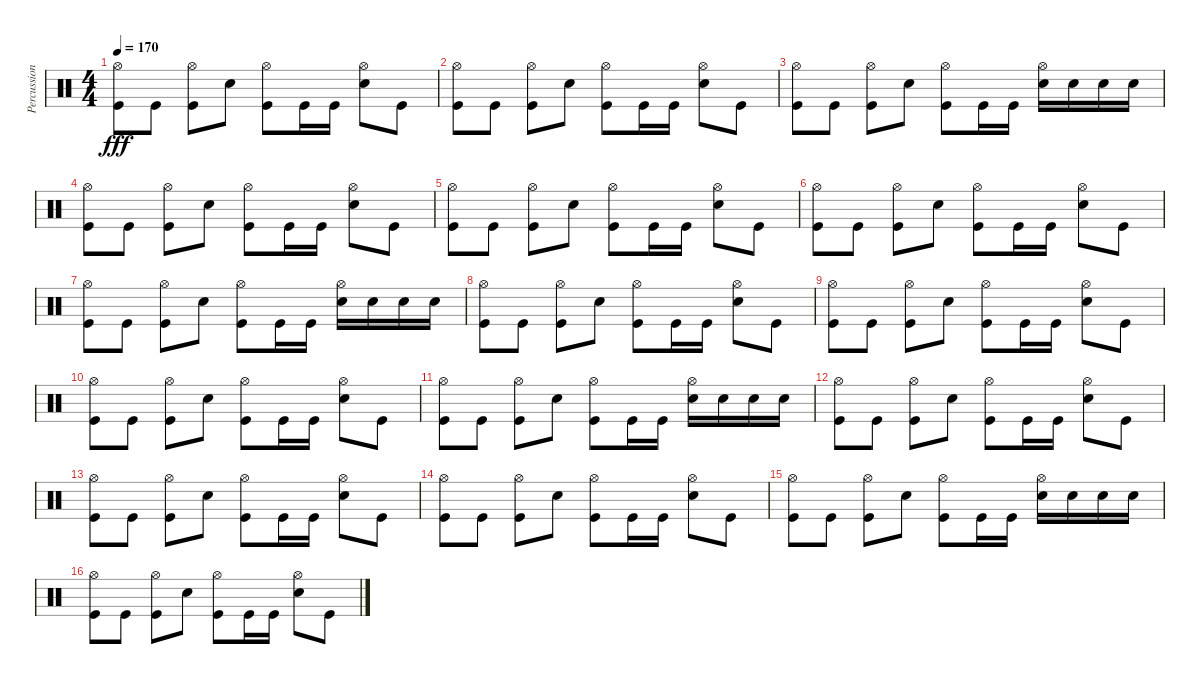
\track ("Percussion" "Percussion") {instrument percussion}
\staff {score}
\articulation defaults
\ts (4 4)
\tempo 170
\clef neutral
\ks c
("Hi-Hat (open)" "Kick (hit)").8{dy fff} "Kick (hit)".8 ("Hi-Hat (open)" "Kick (hit)").8 "Snare (hit) 2".8 ("Hi-Hat (open)" "Kick (hit)").8 "Kick (hit)".16 "Kick (hit)".16 ("Hi-Hat (open)" "Snare (hit) 2").8 "Kick (hit)".8 |
("Hi-Hat (open)" "Kick (hit)").8 "Kick (hit)".8 ("Hi-Hat (open)" "Kick (hit)").8 "Snare (hit) 2".8 ("Hi-Hat (open)" "Kick (hit)").8 "Kick (hit)".16 "Kick (hit)".16 ("Hi-Hat (open)" "Snare (hit) 2").8 "Kick (hit)".8 |
("Hi-Hat (open)" "Kick (hit)").8 "Kick (hit)".8 ("Hi-Hat (open)" "Kick (hit)").8 "Snare (hit) 2".8 ("Hi-Hat (open)" "Kick (hit)").8 "Kick (hit)".16 "Kick (hit)".16 ("Hi-Hat (open)" "Snare (hit) 2").16 "Snare (hit) 2".16 "Snare (hit) 2".16 "Snare (hit) 2".16 |
("Hi-Hat (open)" "Kick (hit)").8 "Kick (hit)".8 ("Hi-Hat (open)" "Kick (hit)").8 "Snare (hit) 2".8 ("Hi-Hat (open)" "Kick (hit)").8 "Kick (hit)".16 "Kick (hit)".16 ("Hi-Hat (open)" "Snare (hit) 2").8 "Kick (hit)".8 |
("Hi-Hat (open)" "Kick (hit)").8 "Kick (hit)".8 ("Hi-Hat (open)" "Kick (hit)").8 "Snare (hit) 2".8 ("Hi-Hat (open)" "Kick (hit)").8 "Kick (hit)".16 "Kick (hit)".16 ("Hi-Hat (open)" "Snare (hit) 2").8 "Kick (hit)".8 |
("Hi-Hat (open)" "Kick (hit)").8 "Kick (hit)".8 ("Hi-Hat (open)" "Kick (hit)").8 "Snare (hit) 2".8 ("Hi-Hat (open)" "Kick (hit)").8 "Kick (hit)".16 "Kick (hit)".16 ("Hi-Hat (open)" "Snare (hit) 2").8 "Kick (hit)".8 |
("Hi-Hat (open)" "Kick (hit)").8 "Kick (hit)".8 ("Hi-Hat (open)" "Kick (hit)").8 "Snare (hit) 2".8 ("Hi-Hat (open)" "Kick (hit)").8 "Kick (hit)".16 "Kick (hit)".16 ("Hi-Hat (open)" "Snare (hit) 2").16 "Snare (hit) 2".16 "Snare (hit) 2".16 "Snare (hit) 2".16 |
("Hi-Hat (open)" "Kick (hit)").8 "Kick (hit)".8 ("Hi-Hat (open)" "Kick (hit)").8 "Snare (hit) 2".8 ("Hi-Hat (open)" "Kick (hit)").8 "Kick (hit)".16 "Kick (hit)".16 ("Hi-Hat (open)" "Snare (hit) 2").8 "Kick (hit)".8 |
("Hi-Hat (open)" "Kick (hit)").8 "Kick (hit)".8 ("Hi-Hat (open)" "Kick (hit)").8 "Snare (hit) 2".8 ("Hi-Hat (open)" "Kick (hit)").8 "Kick (hit)".16 "Kick (hit)".16 ("Hi-Hat (open)" "Snare (hit) 2").8 "Kick (hit)".8 |
("Hi-Hat (open)" "Kick (hit)").8 "Kick (hit)".8 ("Hi-Hat (open)" "Kick (hit)").8 "Snare (hit) 2".8 ("Hi-Hat (open)" "Kick (hit)").8 "Kick (hit)".16 "Kick (hit)".16 ("Hi-Hat (open)" "Snare (hit) 2").8 "Kick (hit)".8 |
("Hi-Hat (open)" "Kick (hit)").8 "Kick (hit)".8 ("Hi-Hat (open)" "Kick (hit)").8 "Snare (hit) 2".8 ("Hi-Hat (open)" "Kick (hit)").8 "Kick (hit)".16 "Kick (hit)".16 ("Hi-Hat (open)" "Snare (hit) 2").16 "Snare (hit) 2".16 "Snare (hit) 2".16 "Snare (hit) 2".16 |
("Hi-Hat (open)" "Kick (hit)").8 "Kick (hit)".8 ("Hi-Hat (open)" "Kick (hit)").8 "Snare (hit) 2".8 ("Hi-Hat (open)" "Kick (hit)").8 "Kick (hit)".16 "Kick (hit)".16 ("Hi-Hat (open)" "Snare (hit) 2").8 "Kick (hit)".8 |
("Hi-Hat (open)" "Kick (hit)").8 "Kick (hit)".8 ("Hi-Hat (open)" "Kick (hit)").8 "Snare (hit) 2".8 ("Hi-Hat (open)" "Kick (hit)").8 "Kick (hit)".16 "Kick (hit)".16 ("Hi-Hat (open)" "Snare (hit) 2").8 "Kick (hit)".8 |
("Hi-Hat (open)" "Kick (hit)").8 "Kick (hit)".8 ("Hi-Hat (open)" "Kick (hit)").8 "Snare (hit) 2".8 ("Hi-Hat (open)" "Kick (hit)").8 "Kick (hit)".16 "Kick (hit)".16 ("Hi-Hat (open)" "Snare (hit) 2").8 "Kick (hit)".8 |
("Hi-Hat (open)" "Kick (hit)").8 "Kick (hit)".8 ("Hi-Hat (open)" "Kick (hit)").8 "Snare (hit) 2".8 ("Hi-Hat (open)" "Kick (hit)").8 "Kick (hit)".16 "Kick (hit)".16 ("Hi-Hat (open)" "Snare (hit) 2").16 "Snare (hit) 2".16 "Snare (hit) 2".16 "Snare (hit) 2".16 |
("Hi-Hat (open)" "Kick (hit)").8 "Kick (hit)".8 ("Hi-Hat (open)" "Kick (hit)").8 "Snare (hit) 2".8 ("Hi-Hat (open)" "Kick (hit)").8 "Kick (hit)".16 "Kick (hit)".16 ("Hi-Hat (open)" "Snare (hit) 2").8 "Kick (hit)".8
